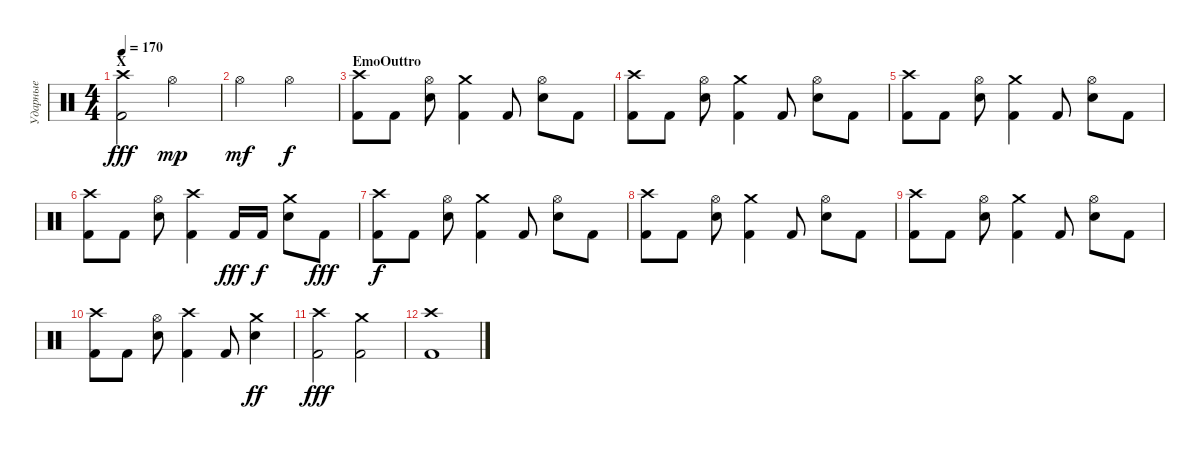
\track ("Ударные" "Ударные") {instrument percussion}
\staff {score}
\articulation defaults
\ts (4 4)
\section ("" "X")
\tempo 170
\clef neutral
\ks c
("Kick (hit) 2" "Crash high (hit)").2{dy fff} "Hi-Hat (open)".2{dy mp} |
"Hi-Hat (open)".2{dy mf} "Hi-Hat (open)".2{dy f} |
\section ("" "EmoOuttro")
("Kick (hit) 2" "Crash high (hit)").8 "Kick (hit) 2".8 ("Snare (hit) 2" "Hi-Hat (open)").8 ("Kick (hit) 2" "Crash medium (hit)").4 "Kick (hit) 2".8 ("Snare (hit) 2" "Hi-Hat (open)").8 "Kick (hit) 2".8 |
("Kick (hit) 2" "Crash high (hit)").8 "Kick (hit) 2".8 ("Snare (hit) 2" "Hi-Hat (open)").8 ("Kick (hit) 2" "Crash medium (hit)").4 "Kick (hit) 2".8 ("Snare (hit) 2" "Hi-Hat (open)").8 "Kick (hit) 2".8 |
("Kick (hit) 2" "Crash high (hit)").8 "Kick (hit) 2".8 ("Snare (hit) 2" "Hi-Hat (open)").8 ("Kick (hit) 2" "Crash medium (hit)").4 "Kick (hit) 2".8 ("Snare (hit) 2" "Hi-Hat (open)").8 "Kick (hit) 2".8 |
("Kick (hit) 2" "Crash high (hit)").8 "Kick (hit) 2".8 ("Snare (hit) 2" "Hi-Hat (open)").8 ("Kick (hit) 2" "Crash high (hit)").4 "Kick (hit) 2".16{dy fff} "Kick (hit) 2".16{dy f} ("Snare (hit) 2" "Crash medium (hit)").8 "Kick (hit) 2".8{dy fff} |
("Kick (hit) 2" "Crash high (hit)").8{dy f} "Kick (hit) 2".8 ("Snare (hit) 2" "Hi-Hat (open)").8 ("Kick (hit) 2" "Crash medium (hit)").4 "Kick (hit) 2".8 ("Snare (hit) 2" "Hi-Hat (open)").8 "Kick (hit) 2".8 |
("Kick (hit) 2" "Crash high (hit)").8 "Kick (hit) 2".8 ("Snare (hit) 2" "Hi-Hat (open)").8 ("Kick (hit) 2" "Crash medium (hit)").4 "Kick (hit) 2".8 ("Snare (hit) 2" "Hi-Hat (open)").8 "Kick (hit) 2".8 |
("Kick (hit) 2" "Crash high (hit)").8 "Kick (hit) 2".8 ("Snare (hit) 2" "Hi-Hat (open)").8 ("Kick (hit) 2" "Crash medium (hit)").4 "Kick (hit) 2".8 ("Snare (hit) 2" "Hi-Hat (open)").8 "Kick (hit) 2".8 |
("Kick (hit) 2" "Crash high (hit)").8 "Kick (hit) 2".8 ("Snare (hit) 2" "Hi-Hat (open)").8 ("Kick (hit) 2" "Crash high (hit)").4 "Kick (hit) 2".8 ("Snare (hit) 2" "Crash medium (hit)").4{dy ff} |
("Kick (hit) 2" "Crash high (hit)").2{dy fff} ("Kick (hit) 2" "Crash medium (hit)").2 |
("Kick (hit) 2" "Crash high (hit)").1
